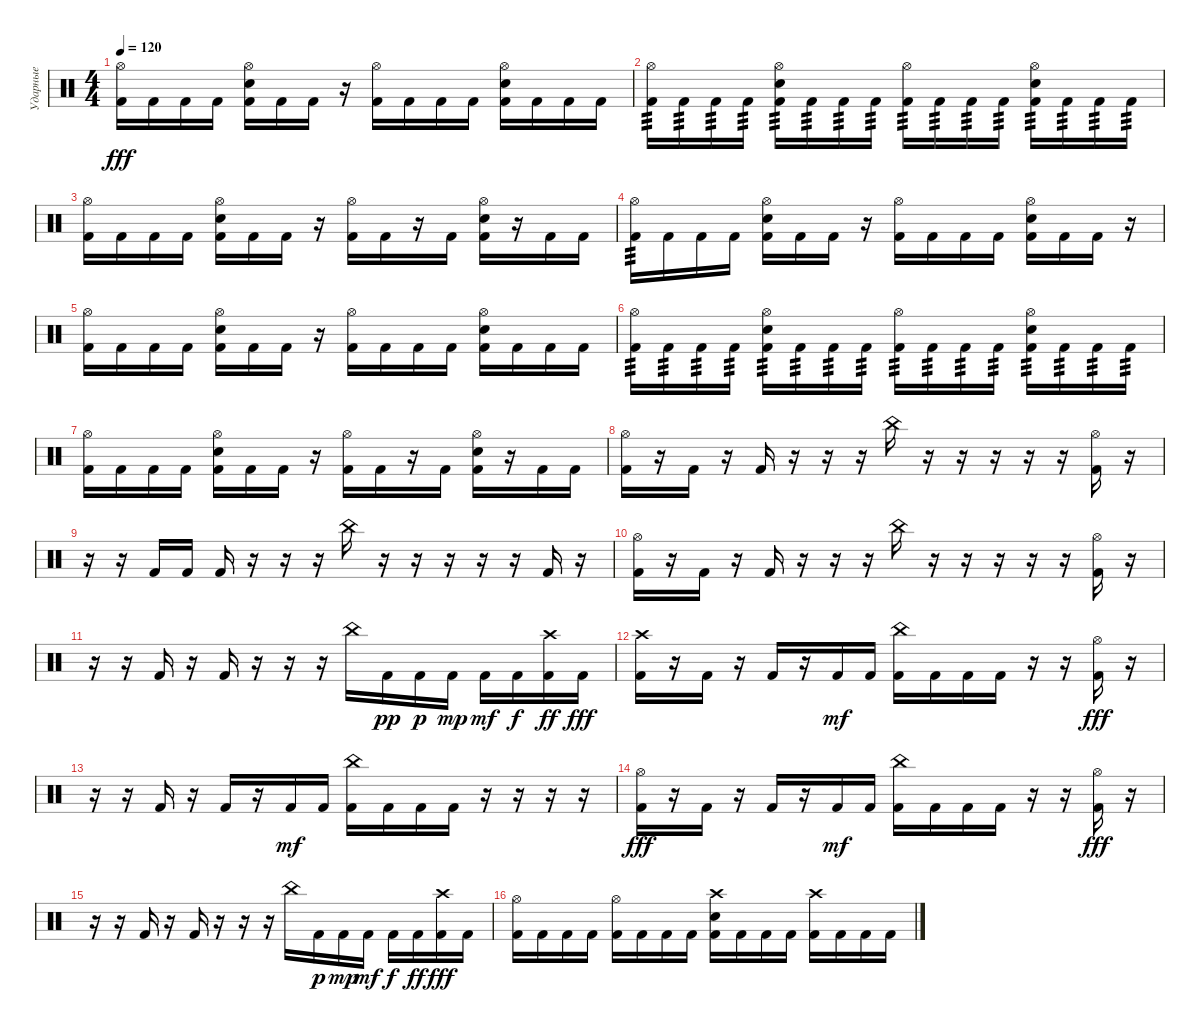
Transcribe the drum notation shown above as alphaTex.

\track ("Ударные" "Ударные") {instrument percussion}
\staff {score}
\articulation defaults
\ts (4 4)
\tempo 120
\clef neutral
\ks c
("Hi-Hat (open)" "Kick (hit) 2").16{dy fff} "Kick (hit) 2".16 "Kick (hit) 2".16 "Kick (hit) 2".16 ("Hi-Hat (open)" "Snare (hit) 2" "Kick (hit) 2").16 "Kick (hit) 2".16 "Kick (hit) 2".16 r.16 ("Hi-Hat (open)" "Kick (hit) 2").16 "Kick (hit) 2".16 "Kick (hit) 2".16 "Kick (hit) 2".16 ("Hi-Hat (open)" "Snare (hit) 2" "Kick (hit) 2").16 "Kick (hit) 2".16 "Kick (hit) 2".16 "Kick (hit) 2".16 |
("Hi-Hat (open)" "Kick (hit) 2").16{tp 3} "Kick (hit) 2".16{tp 3} "Kick (hit) 2".16{tp 3} "Kick (hit) 2".16{tp 3} ("Hi-Hat (open)" "Snare (hit) 2" "Kick (hit) 2").16{tp 3} "Kick (hit) 2".16{tp 3} "Kick (hit) 2".16{tp 3} "Kick (hit) 2".16{tp 3} ("Hi-Hat (open)" "Kick (hit) 2").16{tp 3} "Kick (hit) 2".16{tp 3} "Kick (hit) 2".16{tp 3} "Kick (hit) 2".16{tp 3} ("Hi-Hat (open)" "Snare (hit) 2" "Kick (hit) 2").16{tp 3} "Kick (hit) 2".16{tp 3} "Kick (hit) 2".16{tp 3} "Kick (hit) 2".16{tp 3} |
("Hi-Hat (open)" "Kick (hit) 2").16 "Kick (hit) 2".16 "Kick (hit) 2".16 "Kick (hit) 2".16 ("Hi-Hat (open)" "Snare (hit) 2" "Kick (hit) 2").16 "Kick (hit) 2".16 "Kick (hit) 2".16 r.16 ("Hi-Hat (open)" "Kick (hit) 2").16 "Kick (hit) 2".16 r.16 "Kick (hit) 2".16 ("Hi-Hat (open)" "Snare (hit) 2" "Kick (hit) 2").16 r.16 "Kick (hit) 2".16 "Kick (hit) 2".16 |
("Hi-Hat (open)" "Kick (hit) 2").16{tp 3} "Kick (hit) 2".16 "Kick (hit) 2".16 "Kick (hit) 2".16 ("Hi-Hat (open)" "Snare (hit) 2" "Kick (hit) 2").16 "Kick (hit) 2".16 "Kick (hit) 2".16 r.16 ("Hi-Hat (open)" "Kick (hit) 2").16 "Kick (hit) 2".16 "Kick (hit) 2".16 "Kick (hit) 2".16 ("Hi-Hat (open)" "Snare (hit) 2" "Kick (hit) 2").16 "Kick (hit) 2".16 "Kick (hit) 2".16 r.16 |
("Hi-Hat (open)" "Kick (hit) 2").16 "Kick (hit) 2".16 "Kick (hit) 2".16 "Kick (hit) 2".16 ("Hi-Hat (open)" "Snare (hit) 2" "Kick (hit) 2").16 "Kick (hit) 2".16 "Kick (hit) 2".16 r.16 ("Hi-Hat (open)" "Kick (hit) 2").16 "Kick (hit) 2".16 "Kick (hit) 2".16 "Kick (hit) 2".16 ("Hi-Hat (open)" "Snare (hit) 2" "Kick (hit) 2").16 "Kick (hit) 2".16 "Kick (hit) 2".16 "Kick (hit) 2".16 |
("Hi-Hat (open)" "Kick (hit) 2").16{tp 3} "Kick (hit) 2".16{tp 3} "Kick (hit) 2".16{tp 3} "Kick (hit) 2".16{tp 3} ("Hi-Hat (open)" "Snare (hit) 2" "Kick (hit) 2").16{tp 3} "Kick (hit) 2".16{tp 3} "Kick (hit) 2".16{tp 3} "Kick (hit) 2".16{tp 3} ("Hi-Hat (open)" "Kick (hit) 2").16{tp 3} "Kick (hit) 2".16{tp 3} "Kick (hit) 2".16{tp 3} "Kick (hit) 2".16{tp 3} ("Hi-Hat (open)" "Snare (hit) 2" "Kick (hit) 2").16{tp 3} "Kick (hit) 2".16{tp 3} "Kick (hit) 2".16{tp 3} "Kick (hit) 2".16{tp 3} |
("Hi-Hat (open)" "Kick (hit) 2").16 "Kick (hit) 2".16 "Kick (hit) 2".16 "Kick (hit) 2".16 ("Hi-Hat (open)" "Snare (hit) 2" "Kick (hit) 2").16 "Kick (hit) 2".16 "Kick (hit) 2".16 r.16 ("Hi-Hat (open)" "Kick (hit) 2").16 "Kick (hit) 2".16 r.16 "Kick (hit) 2".16 ("Hi-Hat (open)" "Snare (hit) 2" "Kick (hit) 2").16 r.16 "Kick (hit) 2".16 "Kick (hit) 2".16 |
("Hi-Hat (open)" "Kick (hit) 2").16 r.16 "Kick (hit) 2".16 r.16 "Kick (hit) 2".16 r.16 r.16 r.16 "China (hit)".16 r.16 r.16 r.16 r.16 r.16 ("Hi-Hat (open)" "Kick (hit) 2").16 r.16 |
r.16 r.16 "Kick (hit) 2".16 "Kick (hit) 2".16 "Kick (hit) 2".16 r.16 r.16 r.16 "China (hit)".16 r.16 r.16 r.16 r.16 r.16 "Kick (hit) 2".16 r.16 |
("Hi-Hat (open)" "Kick (hit) 2").16 r.16 "Kick (hit) 2".16 r.16 "Kick (hit) 2".16 r.16 r.16 r.16 "China (hit)".16 r.16 r.16 r.16 r.16 r.16 ("Hi-Hat (open)" "Kick (hit) 2").16 r.16 |
r.16 r.16 "Kick (hit) 2".16 r.16 "Kick (hit) 2".16 r.16 r.16 r.16 "China (hit)".16 "Kick (hit) 2".16{dy pp} "Kick (hit) 2".16{dy p} "Kick (hit) 2".16{dy mp} "Kick (hit) 2".16{dy mf} "Kick (hit) 2".16{dy f} ("Crash high (hit)" "Kick (hit) 2").16{dy ff} "Kick (hit) 2".16{dy fff} |
("Crash high (hit)" "Kick (hit) 2").16 r.16 "Kick (hit) 2".16 r.16 "Kick (hit) 2".16 r.16 "Kick (hit) 2".16{dy mf} "Kick (hit) 2".16 ("China (hit)" "Kick (hit) 2").16 "Kick (hit) 2".16 "Kick (hit) 2".16 "Kick (hit) 2".16 r.16 r.16 ("Hi-Hat (open)" "Kick (hit) 2").16{dy fff} r.16 |
r.16 r.16 "Kick (hit) 2".16 r.16 "Kick (hit) 2".16 r.16 "Kick (hit) 2".16{dy mf} "Kick (hit) 2".16 ("China (hit)" "Kick (hit) 2").16 "Kick (hit) 2".16 "Kick (hit) 2".16 "Kick (hit) 2".16 r.16 r.16 r.16 r.16 |
("Hi-Hat (open)" "Kick (hit) 2").16{dy fff} r.16 "Kick (hit) 2".16 r.16 "Kick (hit) 2".16 r.16 "Kick (hit) 2".16{dy mf} "Kick (hit) 2".16 ("China (hit)" "Kick (hit) 2").16 "Kick (hit) 2".16 "Kick (hit) 2".16 "Kick (hit) 2".16 r.16 r.16 ("Hi-Hat (open)" "Kick (hit) 2").16{dy fff} r.16 |
r.16 r.16 "Kick (hit) 2".16 r.16 "Kick (hit) 2".16 r.16 r.16 r.16 "China (hit)".16 "Kick (hit) 2".16{dy p} "Kick (hit) 2".16{dy mp} "Kick (hit) 2".16{dy mf} "Kick (hit) 2".16{dy f} "Kick (hit) 2".16{dy ff} ("Crash high (hit)" "Kick (hit) 2").16{dy fff} "Kick (hit) 2".16 |
("Hi-Hat (open)" "Kick (hit) 2").16 "Kick (hit) 2".16 "Kick (hit) 2".16 "Kick (hit) 2".16 ("Hi-Hat (open)" "Kick (hit) 2").16 "Kick (hit) 2".16 "Kick (hit) 2".16 "Kick (hit) 2".16 ("Crash high (hit)" "Snare (hit) 2" "Kick (hit) 2").16 "Kick (hit) 2".16 "Kick (hit) 2".16 "Kick (hit) 2".16 ("Crash high (hit)" "Kick (hit) 2").16 "Kick (hit) 2".16 "Kick (hit) 2".16 "Kick (hit) 2".16
